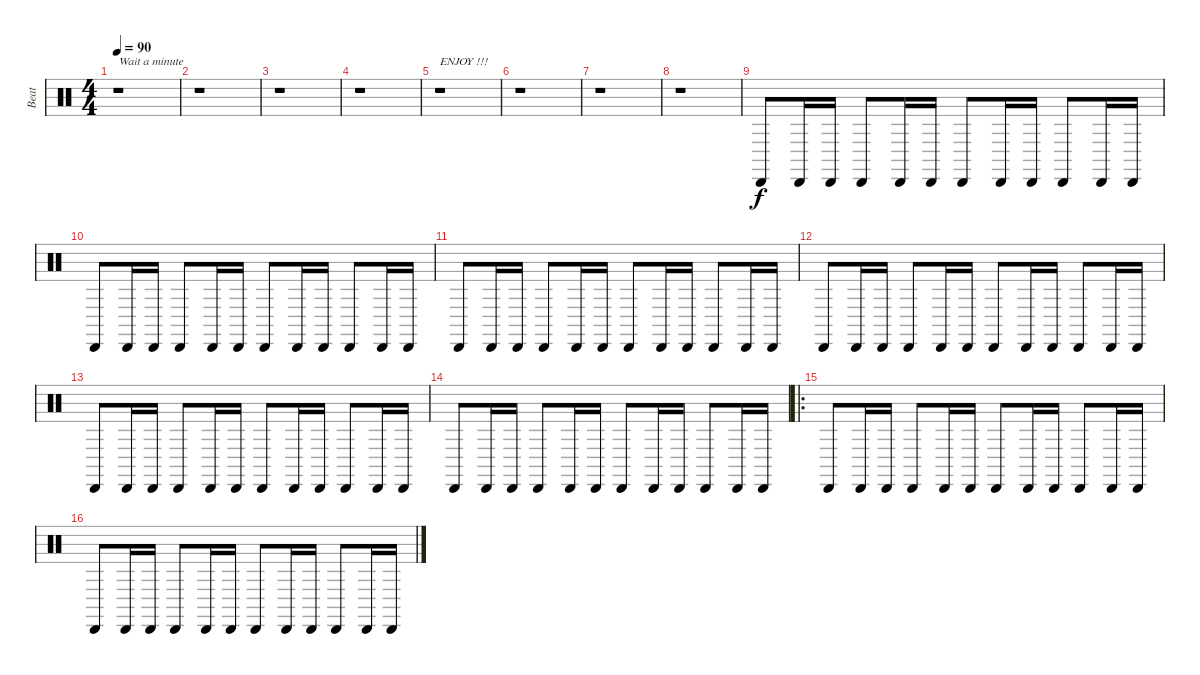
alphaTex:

\track ("Beat" "Beat") {instrument percussion}
\staff {score}
\articulation defaults
\ts (4 4)
\tempo 90
\clef neutral
\ks c
r.1{txt "Wait a minute" dy f} |
r.1 |
r.1{txt ""} |
r.1 |
r.1{txt "ENJOY !!!"} |
r.1 |
r.1 |
r.1 |
"Cabasa (hit)".8 "Cabasa (hit)".16 "Cabasa (hit)".16 "Cabasa (hit)".8 "Cabasa (hit)".16 "Cabasa (hit)".16 "Cabasa (hit)".8 "Cabasa (hit)".16 "Cabasa (hit)".16 "Cabasa (hit)".8 "Cabasa (hit)".16 "Cabasa (hit)".16 |
"Cabasa (hit)".8 "Cabasa (hit)".16 "Cabasa (hit)".16 "Cabasa (hit)".8 "Cabasa (hit)".16 "Cabasa (hit)".16 "Cabasa (hit)".8 "Cabasa (hit)".16 "Cabasa (hit)".16 "Cabasa (hit)".8 "Cabasa (hit)".16 "Cabasa (hit)".16 |
"Cabasa (hit)".8 "Cabasa (hit)".16 "Cabasa (hit)".16 "Cabasa (hit)".8 "Cabasa (hit)".16 "Cabasa (hit)".16 "Cabasa (hit)".8 "Cabasa (hit)".16 "Cabasa (hit)".16 "Cabasa (hit)".8 "Cabasa (hit)".16 "Cabasa (hit)".16 |
"Cabasa (hit)".8 "Cabasa (hit)".16 "Cabasa (hit)".16 "Cabasa (hit)".8 "Cabasa (hit)".16 "Cabasa (hit)".16 "Cabasa (hit)".8 "Cabasa (hit)".16 "Cabasa (hit)".16 "Cabasa (hit)".8 "Cabasa (hit)".16 "Cabasa (hit)".16 |
"Cabasa (hit)".8 "Cabasa (hit)".16 "Cabasa (hit)".16 "Cabasa (hit)".8 "Cabasa (hit)".16 "Cabasa (hit)".16 "Cabasa (hit)".8 "Cabasa (hit)".16 "Cabasa (hit)".16 "Cabasa (hit)".8 "Cabasa (hit)".16 "Cabasa (hit)".16 |
"Cabasa (hit)".8 "Cabasa (hit)".16 "Cabasa (hit)".16 "Cabasa (hit)".8 "Cabasa (hit)".16 "Cabasa (hit)".16 "Cabasa (hit)".8 "Cabasa (hit)".16 "Cabasa (hit)".16 "Cabasa (hit)".8 "Cabasa (hit)".16 "Cabasa (hit)".16 |
\ro "Cabasa (hit)".8 "Cabasa (hit)".16 "Cabasa (hit)".16 "Cabasa (hit)".8 "Cabasa (hit)".16 "Cabasa (hit)".16 "Cabasa (hit)".8 "Cabasa (hit)".16 "Cabasa (hit)".16 "Cabasa (hit)".8 "Cabasa (hit)".16 "Cabasa (hit)".16
|
"Cabasa (hit)".8 "Cabasa (hit)".16 "Cabasa (hit)".16 "Cabasa (hit)".8 "Cabasa (hit)".16 "Cabasa (hit)".16 "Cabasa (hit)".8 "Cabasa (hit)".16 "Cabasa (hit)".16 "Cabasa (hit)".8 "Cabasa (hit)".16 "Cabasa (hit)".16
